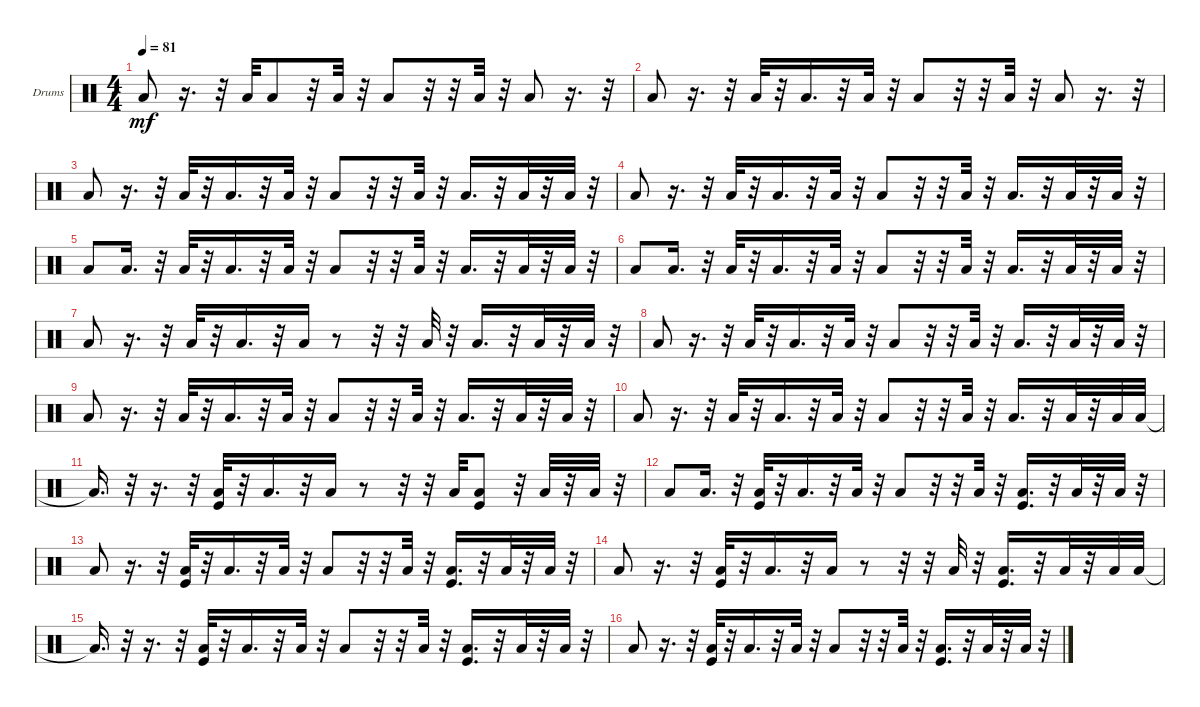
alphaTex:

\bracketExtendMode groupsimilarinstruments
\firstSystemTrackNameOrientation horizontal
\otherSystemsTrackNameOrientation horizontal
\track ("DRUMS" "Drums") {instrument percussion}
\staff {score}
\articulation defaults
\ts (4 4)
\tempo 81
\clef neutral
\ks c "Low Tom (hit)".8{dy mf}
r.16{d} r.32 "Low Tom (hit)".32 "Low Tom (hit)".8 r.32 "Low Tom (hit)".32 r.32 "Low Tom (hit)".8 r.32 r.32 "Low Tom (hit)".32 r.32 "Low Tom (hit)".8 r.16{d} r.32 |
"Low Tom (hit)".8 r.16{d} r.32 "Low Tom (hit)".32 r.32 "Low Tom (hit)".16{d} r.32 "Low Tom (hit)".32 r.32 "Low Tom (hit)".8 r.32 r.32 "Low Tom (hit)".32 r.32 "Low Tom (hit)".8 r.16{d} r.32 |
"Low Tom (hit)".8 r.16{d} r.32 "Low Tom (hit)".32 r.32 "Low Tom (hit)".16{d} r.32 "Low Tom (hit)".32 r.32 "Low Tom (hit)".8 r.32 r.32 "Low Tom (hit)".32 r.32 "Low Tom (hit)".16{d} r.32 "Low Tom (hit)".32 r.32 "Low Tom (hit)".32 r.32 |
"Low Tom (hit)".8 r.16{d} r.32 "Low Tom (hit)".32 r.32 "Low Tom (hit)".16{d} r.32 "Low Tom (hit)".32 r.32 "Low Tom (hit)".8 r.32 r.32 "Low Tom (hit)".32 r.32 "Low Tom (hit)".16{d} r.32 "Low Tom (hit)".32 r.32 "Low Tom (hit)".32 r.32 |
"Low Tom (hit)".8 "Low Tom (hit)".16{d} r.32 "Low Tom (hit)".32 r.32 "Low Tom (hit)".16{d} r.32 "Low Tom (hit)".32 r.32 "Low Tom (hit)".8 r.32 r.32 "Low Tom (hit)".32 r.32 "Low Tom (hit)".16{d} r.32 "Low Tom (hit)".32 r.32 "Low Tom (hit)".32 r.32 |
"Low Tom (hit)".8 "Low Tom (hit)".16{d} r.32 "Low Tom (hit)".32 r.32 "Low Tom (hit)".16{d} r.32 "Low Tom (hit)".32 r.32 "Low Tom (hit)".8 r.32 r.32 "Low Tom (hit)".32 r.32 "Low Tom (hit)".16{d} r.32 "Low Tom (hit)".32 r.32 "Low Tom (hit)".32 r.32 |
"Low Tom (hit)".8 r.16{d} r.32 "Low Tom (hit)".32 r.32 "Low Tom (hit)".16{d} r.32 "Low Tom (hit)".16 r.8 r.32 r.32 "Low Tom (hit)".32 r.32 "Low Tom (hit)".16{d} r.32 "Low Tom (hit)".32 r.32 "Low Tom (hit)".32 r.32 |
"Low Tom (hit)".8 r.16{d} r.32 "Low Tom (hit)".32 r.32 "Low Tom (hit)".16{d} r.32 "Low Tom (hit)".32 r.32 "Low Tom (hit)".8 r.32 r.32 "Low Tom (hit)".32 r.32 "Low Tom (hit)".16{d} r.32 "Low Tom (hit)".32 r.32 "Low Tom (hit)".32 r.32 |
"Low Tom (hit)".8 r.16{d} r.32 "Low Tom (hit)".32 r.32 "Low Tom (hit)".16{d} r.32 "Low Tom (hit)".32 r.32 "Low Tom (hit)".8 r.32 r.32 "Low Tom (hit)".32 r.32 "Low Tom (hit)".16{d} r.32 "Low Tom (hit)".32 r.32 "Low Tom (hit)".32 r.32 |
"Low Tom (hit)".8 r.16{d} r.32 "Low Tom (hit)".32 r.32 "Low Tom (hit)".16{d} r.32 "Low Tom (hit)".32 r.32 "Low Tom (hit)".8 r.32 r.32 "Low Tom (hit)".32 r.32 "Low Tom (hit)".16{d} r.32 "Low Tom (hit)".32 r.32 "Low Tom (hit)".32 "Low Tom (hit)".32 |
"Low Tom (hit)"{t}.16{d} r.32 r.16{d} r.32 ("Kick (hit)" "Low Tom (hit)").32 r.32 "Low Tom (hit)".16{d} r.32 "Low Tom (hit)".16 r.8 r.32 r.32 "Low Tom (hit)".32 ("Kick (hit)" "Low Tom (hit)").8 r.32 "Low Tom (hit)".32 r.32 "Low Tom (hit)".32 r.32 |
"Low Tom (hit)".8 "Low Tom (hit)".16{d} r.32 ("Kick (hit)" "Low Tom (hit)").32 r.32 "Low Tom (hit)".16{d} r.32 "Low Tom (hit)".32 r.32 "Low Tom (hit)".8 r.32 r.32 "Low Tom (hit)".32 r.32 ("Kick (hit)" "Low Tom (hit)").16{d} r.32 "Low Tom (hit)".32 r.32 "Low Tom (hit)".32 r.32 |
"Low Tom (hit)".8 r.16{d} r.32 ("Kick (hit)" "Low Tom (hit)").32 r.32 "Low Tom (hit)".16{d} r.32 "Low Tom (hit)".32 r.32 "Low Tom (hit)".8 r.32 r.32 "Low Tom (hit)".32 r.32 ("Kick (hit)" "Low Tom (hit)").16{d} r.32 "Low Tom (hit)".32 r.32 "Low Tom (hit)".32 r.32 |
"Low Tom (hit)".8 r.16{d} r.32 ("Kick (hit)" "Low Tom (hit)").32 r.32 "Low Tom (hit)".16{d} r.32 "Low Tom (hit)".16 r.8 r.32 r.32 "Low Tom (hit)".32 r.32 ("Kick (hit)" "Low Tom (hit)").16{d} r.32 "Low Tom (hit)".32 r.32 "Low Tom (hit)".32 "Low Tom (hit)".32 |
"Low Tom (hit)"{t}.16{d} r.32 r.16{d} r.32 ("Kick (hit)" "Low Tom (hit)").32 r.32 "Low Tom (hit)".16{d} r.32 "Low Tom (hit)".32 r.32 "Low Tom (hit)".8 r.32 r.32 "Low Tom (hit)".32 r.32 ("Kick (hit)" "Low Tom (hit)").16{d} r.32 "Low Tom (hit)".32 r.32 "Low Tom (hit)".32 r.32 |
"Low Tom (hit)".8 r.16{d} r.32 ("Kick (hit)" "Low Tom (hit)").32 r.32 "Low Tom (hit)".16{d} r.32 "Low Tom (hit)".32 r.32 "Low Tom (hit)".8 r.32 r.32 "Low Tom (hit)".32 r.32 ("Kick (hit)" "Low Tom (hit)").16{d} r.32 "Low Tom (hit)".32 r.32 "Low Tom (hit)".32 r.32
